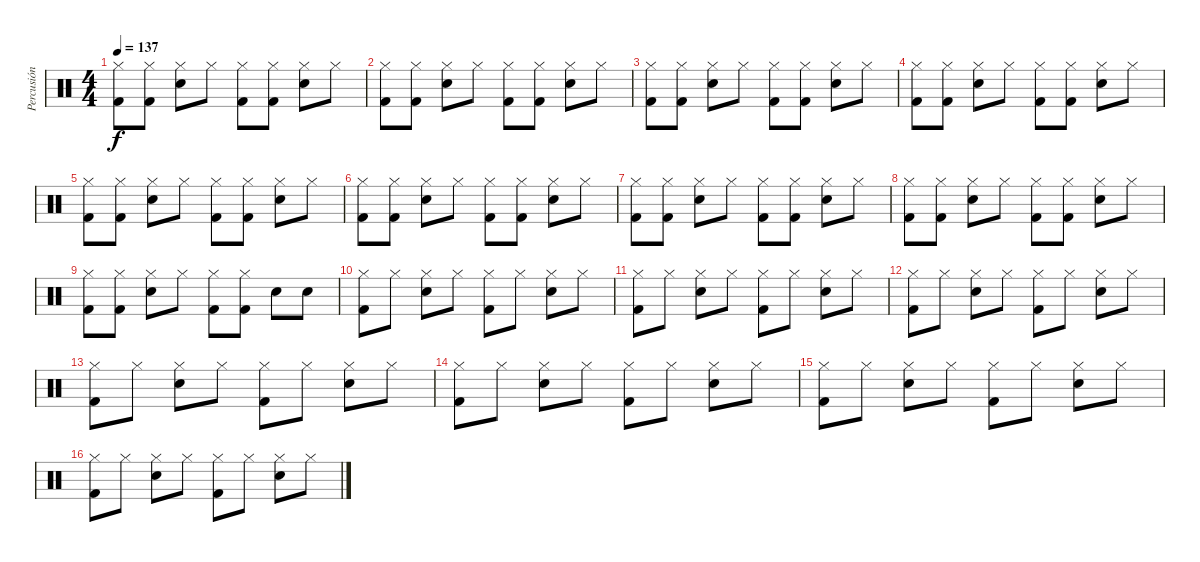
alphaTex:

\track ("Percusión" "Percusión") {instrument percussion}
\staff {score}
\articulation defaults
\ts (4 4)
\tempo 137
\clef neutral
\ks c
("Hi-Hat (closed)" "Kick (hit) 2").8{dy f} ("Hi-Hat (closed)" "Kick (hit) 2").8 ("Hi-Hat (closed)" "Electric Snare (hit)").8 "Hi-Hat (closed)".8 ("Hi-Hat (closed)" "Kick (hit) 2").8 ("Hi-Hat (closed)" "Kick (hit) 2").8 ("Hi-Hat (closed)" "Electric Snare (hit)").8 "Hi-Hat (closed)".8 |
("Hi-Hat (closed)" "Kick (hit) 2").8 ("Hi-Hat (closed)" "Kick (hit) 2").8 ("Hi-Hat (closed)" "Electric Snare (hit)").8 "Hi-Hat (closed)".8 ("Hi-Hat (closed)" "Kick (hit) 2").8 ("Hi-Hat (closed)" "Kick (hit) 2").8 ("Hi-Hat (closed)" "Electric Snare (hit)").8 "Hi-Hat (closed)".8 |
("Hi-Hat (closed)" "Kick (hit) 2").8 ("Hi-Hat (closed)" "Kick (hit) 2").8 ("Hi-Hat (closed)" "Electric Snare (hit)").8 "Hi-Hat (closed)".8 ("Hi-Hat (closed)" "Kick (hit) 2").8 ("Hi-Hat (closed)" "Kick (hit) 2").8 ("Hi-Hat (closed)" "Electric Snare (hit)").8 "Hi-Hat (closed)".8 |
("Hi-Hat (closed)" "Kick (hit) 2").8 ("Hi-Hat (closed)" "Kick (hit) 2").8 ("Hi-Hat (closed)" "Electric Snare (hit)").8 "Hi-Hat (closed)".8 ("Hi-Hat (closed)" "Kick (hit) 2").8 ("Hi-Hat (closed)" "Kick (hit) 2").8 ("Hi-Hat (closed)" "Electric Snare (hit)").8 "Hi-Hat (closed)".8 |
("Hi-Hat (closed)" "Kick (hit) 2").8 ("Hi-Hat (closed)" "Kick (hit) 2").8 ("Hi-Hat (closed)" "Electric Snare (hit)").8 "Hi-Hat (closed)".8 ("Hi-Hat (closed)" "Kick (hit) 2").8 ("Hi-Hat (closed)" "Kick (hit) 2").8 ("Hi-Hat (closed)" "Electric Snare (hit)").8 "Hi-Hat (closed)".8 |
("Hi-Hat (closed)" "Kick (hit) 2").8 ("Hi-Hat (closed)" "Kick (hit) 2").8 ("Hi-Hat (closed)" "Electric Snare (hit)").8 "Hi-Hat (closed)".8 ("Hi-Hat (closed)" "Kick (hit) 2").8 ("Hi-Hat (closed)" "Kick (hit) 2").8 ("Hi-Hat (closed)" "Electric Snare (hit)").8 "Hi-Hat (closed)".8 |
("Hi-Hat (closed)" "Kick (hit) 2").8 ("Hi-Hat (closed)" "Kick (hit) 2").8 ("Hi-Hat (closed)" "Electric Snare (hit)").8 "Hi-Hat (closed)".8 ("Hi-Hat (closed)" "Kick (hit) 2").8 ("Hi-Hat (closed)" "Kick (hit) 2").8 ("Hi-Hat (closed)" "Electric Snare (hit)").8 "Hi-Hat (closed)".8 |
("Hi-Hat (closed)" "Kick (hit) 2").8 ("Hi-Hat (closed)" "Kick (hit) 2").8 ("Hi-Hat (closed)" "Electric Snare (hit)").8 "Hi-Hat (closed)".8 ("Hi-Hat (closed)" "Kick (hit) 2").8 ("Hi-Hat (closed)" "Kick (hit) 2").8 ("Hi-Hat (closed)" "Electric Snare (hit)").8 "Hi-Hat (closed)".8 |
("Hi-Hat (closed)" "Kick (hit) 2").8 ("Hi-Hat (closed)" "Kick (hit) 2").8 ("Hi-Hat (closed)" "Electric Snare (hit)").8 "Hi-Hat (closed)".8 ("Hi-Hat (closed)" "Kick (hit) 2").8 ("Hi-Hat (closed)" "Kick (hit) 2").8 "Electric Snare (hit)".8 "Electric Snare (hit)".8 |
("Hi-Hat (closed)" "Kick (hit) 2").8 "Hi-Hat (closed)".8 ("Hi-Hat (closed)" "Electric Snare (hit)").8 "Hi-Hat (closed)".8 ("Hi-Hat (closed)" "Kick (hit) 2").8 "Hi-Hat (closed)".8 ("Hi-Hat (closed)" "Electric Snare (hit)").8 "Hi-Hat (closed)".8 |
("Hi-Hat (closed)" "Kick (hit) 2").8 "Hi-Hat (closed)".8 ("Hi-Hat (closed)" "Electric Snare (hit)").8 "Hi-Hat (closed)".8 ("Hi-Hat (closed)" "Kick (hit) 2").8 "Hi-Hat (closed)".8 ("Hi-Hat (closed)" "Electric Snare (hit)").8 "Hi-Hat (closed)".8 |
("Hi-Hat (closed)" "Kick (hit) 2").8 "Hi-Hat (closed)".8 ("Hi-Hat (closed)" "Electric Snare (hit)").8 "Hi-Hat (closed)".8 ("Hi-Hat (closed)" "Kick (hit) 2").8 "Hi-Hat (closed)".8 ("Hi-Hat (closed)" "Electric Snare (hit)").8 "Hi-Hat (closed)".8 |
("Hi-Hat (closed)" "Kick (hit) 2").8 "Hi-Hat (closed)".8 ("Hi-Hat (closed)" "Electric Snare (hit)").8 "Hi-Hat (closed)".8 ("Hi-Hat (closed)" "Kick (hit) 2").8 "Hi-Hat (closed)".8 ("Hi-Hat (closed)" "Electric Snare (hit)").8 "Hi-Hat (closed)".8 |
("Hi-Hat (closed)" "Kick (hit) 2").8 "Hi-Hat (closed)".8 ("Hi-Hat (closed)" "Electric Snare (hit)").8 "Hi-Hat (closed)".8 ("Hi-Hat (closed)" "Kick (hit) 2").8 "Hi-Hat (closed)".8 ("Hi-Hat (closed)" "Electric Snare (hit)").8 "Hi-Hat (closed)".8 |
("Hi-Hat (closed)" "Kick (hit) 2").8 "Hi-Hat (closed)".8 ("Hi-Hat (closed)" "Electric Snare (hit)").8 "Hi-Hat (closed)".8 ("Hi-Hat (closed)" "Kick (hit) 2").8 "Hi-Hat (closed)".8 ("Hi-Hat (closed)" "Electric Snare (hit)").8 "Hi-Hat (closed)".8 |
("Hi-Hat (closed)" "Kick (hit) 2").8 "Hi-Hat (closed)".8 ("Hi-Hat (closed)" "Electric Snare (hit)").8 "Hi-Hat (closed)".8 ("Hi-Hat (closed)" "Kick (hit) 2").8 "Hi-Hat (closed)".8 ("Hi-Hat (closed)" "Electric Snare (hit)").8 "Hi-Hat (closed)".8
